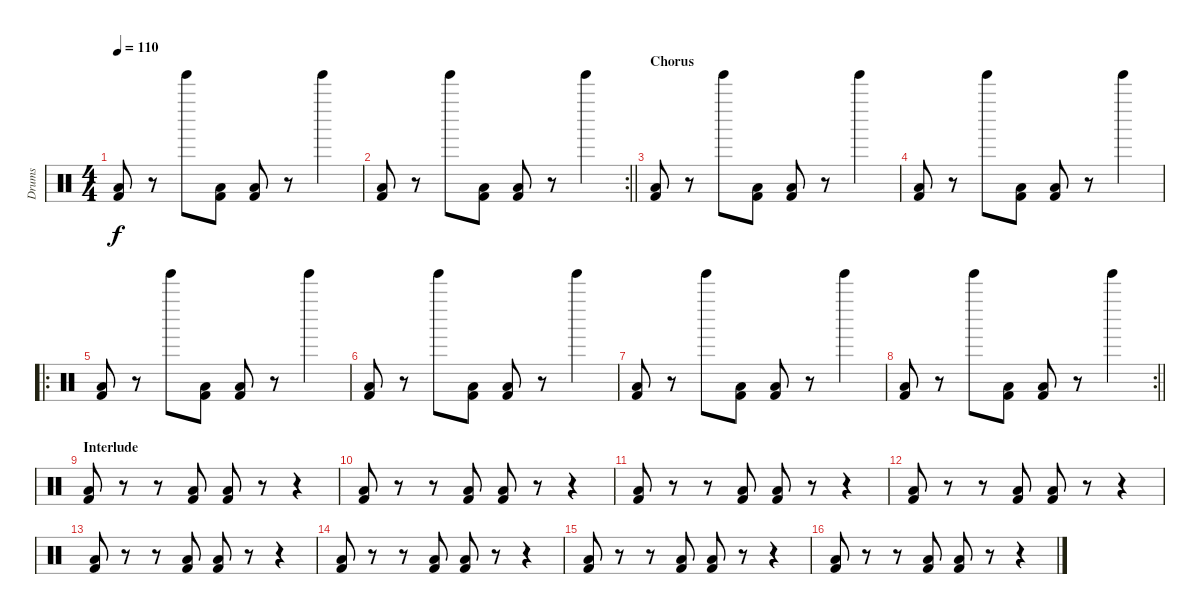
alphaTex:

\track ("Drums" "Drums") {instrument percussion}
\staff {score}
\articulation defaults
\ts (4 4)
\tempo 110
\clef neutral
\ks c
("Low Floor Tom (hit)" "Kick (hit) 2").8{dy f} r.8 "Tinkle Bell (hit)".8 ("Low Floor Tom (hit)" "Kick (hit) 2").8 ("Low Floor Tom (hit)" "Kick (hit) 2").8 r.8 "Tinkle Bell (hit)".4 |
\rc 2
\barLineRight lightlight
("Low Floor Tom (hit)" "Kick (hit) 2").8 r.8 "Tinkle Bell (hit)".8 ("Low Floor Tom (hit)" "Kick (hit) 2").8 ("Low Floor Tom (hit)" "Kick (hit) 2").8 r.8 "Tinkle Bell (hit)".4 |
\section ("" "Chorus")
("Low Floor Tom (hit)" "Kick (hit) 2").8 r.8 "Tinkle Bell (hit)".8 ("Low Floor Tom (hit)" "Kick (hit) 2").8 ("Low Floor Tom (hit)" "Kick (hit) 2").8 r.8 "Tinkle Bell (hit)".4 |
("Low Floor Tom (hit)" "Kick (hit) 2").8 r.8 "Tinkle Bell (hit)".8 ("Low Floor Tom (hit)" "Kick (hit) 2").8 ("Low Floor Tom (hit)" "Kick (hit) 2").8 r.8 "Tinkle Bell (hit)".4 |
\ro
("Low Floor Tom (hit)" "Kick (hit) 2").8 r.8 "Tinkle Bell (hit)".8 ("Low Floor Tom (hit)" "Kick (hit) 2").8 ("Low Floor Tom (hit)" "Kick (hit) 2").8 r.8 "Tinkle Bell (hit)".4 |
("Low Floor Tom (hit)" "Kick (hit) 2").8 r.8 "Tinkle Bell (hit)".8 ("Low Floor Tom (hit)" "Kick (hit) 2").8 ("Low Floor Tom (hit)" "Kick (hit) 2").8 r.8 "Tinkle Bell (hit)".4 |
("Low Floor Tom (hit)" "Kick (hit) 2").8 r.8 "Tinkle Bell (hit)".8 ("Low Floor Tom (hit)" "Kick (hit) 2").8 ("Low Floor Tom (hit)" "Kick (hit) 2").8 r.8 "Tinkle Bell (hit)".4 |
\rc 2
\barLineRight lightlight
("Low Floor Tom (hit)" "Kick (hit) 2").8 r.8 "Tinkle Bell (hit)".8 ("Low Floor Tom (hit)" "Kick (hit) 2").8 ("Low Floor Tom (hit)" "Kick (hit) 2").8 r.8 "Tinkle Bell (hit)".4 |
\section ("" "Interlude")
("Low Floor Tom (hit)" "Kick (hit) 2").8 r.8 r.8 ("Low Floor Tom (hit)" "Kick (hit) 2").8 ("Low Floor Tom (hit)" "Kick (hit) 2").8 r.8 r.4 |
("Low Floor Tom (hit)" "Kick (hit) 2").8 r.8 r.8 ("Low Floor Tom (hit)" "Kick (hit) 2").8 ("Low Floor Tom (hit)" "Kick (hit) 2").8 r.8 r.4 |
("Low Floor Tom (hit)" "Kick (hit) 2").8 r.8 r.8 ("Low Floor Tom (hit)" "Kick (hit) 2").8 ("Low Floor Tom (hit)" "Kick (hit) 2").8 r.8 r.4 |
("Low Floor Tom (hit)" "Kick (hit) 2").8 r.8 r.8 ("Low Floor Tom (hit)" "Kick (hit) 2").8 ("Low Floor Tom (hit)" "Kick (hit) 2").8 r.8 r.4 |
("Low Floor Tom (hit)" "Kick (hit) 2").8 r.8 r.8 ("Low Floor Tom (hit)" "Kick (hit) 2").8 ("Low Floor Tom (hit)" "Kick (hit) 2").8 r.8 r.4 |
("Low Floor Tom (hit)" "Kick (hit) 2").8 r.8 r.8 ("Low Floor Tom (hit)" "Kick (hit) 2").8 ("Low Floor Tom (hit)" "Kick (hit) 2").8 r.8 r.4 |
("Low Floor Tom (hit)" "Kick (hit) 2").8 r.8 r.8 ("Low Floor Tom (hit)" "Kick (hit) 2").8 ("Low Floor Tom (hit)" "Kick (hit) 2").8 r.8 r.4 |
("Low Floor Tom (hit)" "Kick (hit) 2").8 r.8 r.8 ("Low Floor Tom (hit)" "Kick (hit) 2").8 ("Low Floor Tom (hit)" "Kick (hit) 2").8 r.8 r.4
